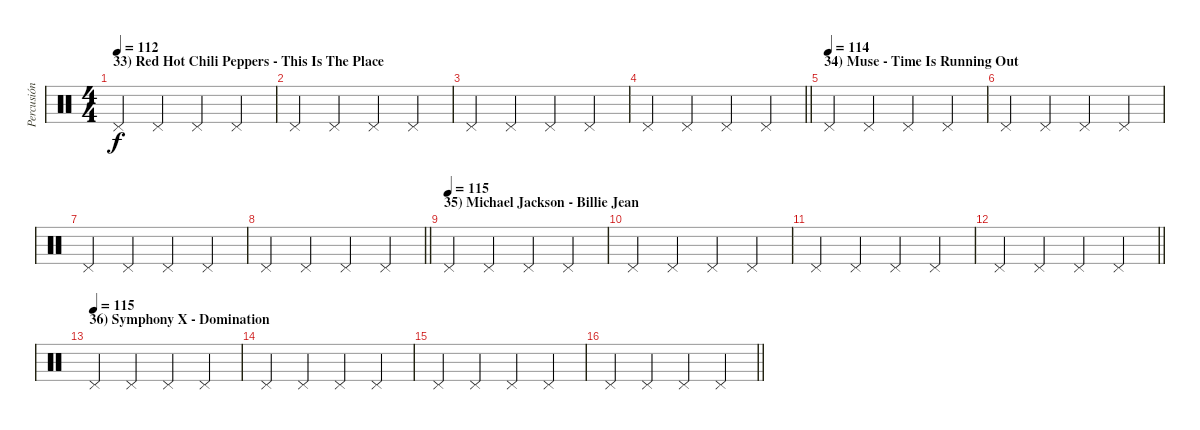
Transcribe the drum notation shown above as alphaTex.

\track ("Percusión" "Percusión") {instrument percussion}
\staff {score}
\articulation defaults
\ts (4 4)
\section ("" "33) Red Hot Chili Peppers - This Is The Place")
\tempo 112
\clef neutral
\ks c "Pedal Hi-Hat (hit)".4{dy f} "Pedal Hi-Hat (hit)".4 "Pedal Hi-Hat (hit)".4 "Pedal Hi-Hat (hit)".4
|
"Pedal Hi-Hat (hit)".4 "Pedal Hi-Hat (hit)".4 "Pedal Hi-Hat (hit)".4 "Pedal Hi-Hat (hit)".4 |
"Pedal Hi-Hat (hit)".4 "Pedal Hi-Hat (hit)".4 "Pedal Hi-Hat (hit)".4 "Pedal Hi-Hat (hit)".4 |
\barLineRight lightlight "Pedal Hi-Hat (hit)".4 "Pedal Hi-Hat (hit)".4 "Pedal Hi-Hat (hit)".4 "Pedal Hi-Hat (hit)".4
|
\section ("" "34) Muse - Time Is Running Out")
\tempo (114)
"Pedal Hi-Hat (hit)".4 "Pedal Hi-Hat (hit)".4 "Pedal Hi-Hat (hit)".4 "Pedal Hi-Hat (hit)".4 |
"Pedal Hi-Hat (hit)".4 "Pedal Hi-Hat (hit)".4 "Pedal Hi-Hat (hit)".4 "Pedal Hi-Hat (hit)".4 |
"Pedal Hi-Hat (hit)".4 "Pedal Hi-Hat (hit)".4 "Pedal Hi-Hat (hit)".4 "Pedal Hi-Hat (hit)".4 |
\barLineRight lightlight "Pedal Hi-Hat (hit)".4 "Pedal Hi-Hat (hit)".4 "Pedal Hi-Hat (hit)".4 "Pedal Hi-Hat (hit)".4
|
\section ("" "35) Michael Jackson - Billie Jean")
\tempo (115)
"Pedal Hi-Hat (hit)".4 "Pedal Hi-Hat (hit)".4 "Pedal Hi-Hat (hit)".4 "Pedal Hi-Hat (hit)".4 |
"Pedal Hi-Hat (hit)".4 "Pedal Hi-Hat (hit)".4 "Pedal Hi-Hat (hit)".4 "Pedal Hi-Hat (hit)".4 |
"Pedal Hi-Hat (hit)".4 "Pedal Hi-Hat (hit)".4 "Pedal Hi-Hat (hit)".4 "Pedal Hi-Hat (hit)".4 |
\barLineRight lightlight "Pedal Hi-Hat (hit)".4 "Pedal Hi-Hat (hit)".4 "Pedal Hi-Hat (hit)".4 "Pedal Hi-Hat (hit)".4
|
\section ("" "36) Symphony X - Domination")
\tempo (115)
"Pedal Hi-Hat (hit)".4 "Pedal Hi-Hat (hit)".4 "Pedal Hi-Hat (hit)".4 "Pedal Hi-Hat (hit)".4 |
"Pedal Hi-Hat (hit)".4 "Pedal Hi-Hat (hit)".4 "Pedal Hi-Hat (hit)".4 "Pedal Hi-Hat (hit)".4 |
"Pedal Hi-Hat (hit)".4 "Pedal Hi-Hat (hit)".4 "Pedal Hi-Hat (hit)".4 "Pedal Hi-Hat (hit)".4 |
\barLineRight lightlight "Pedal Hi-Hat (hit)".4 "Pedal Hi-Hat (hit)".4 "Pedal Hi-Hat (hit)".4 "Pedal Hi-Hat (hit)".4
